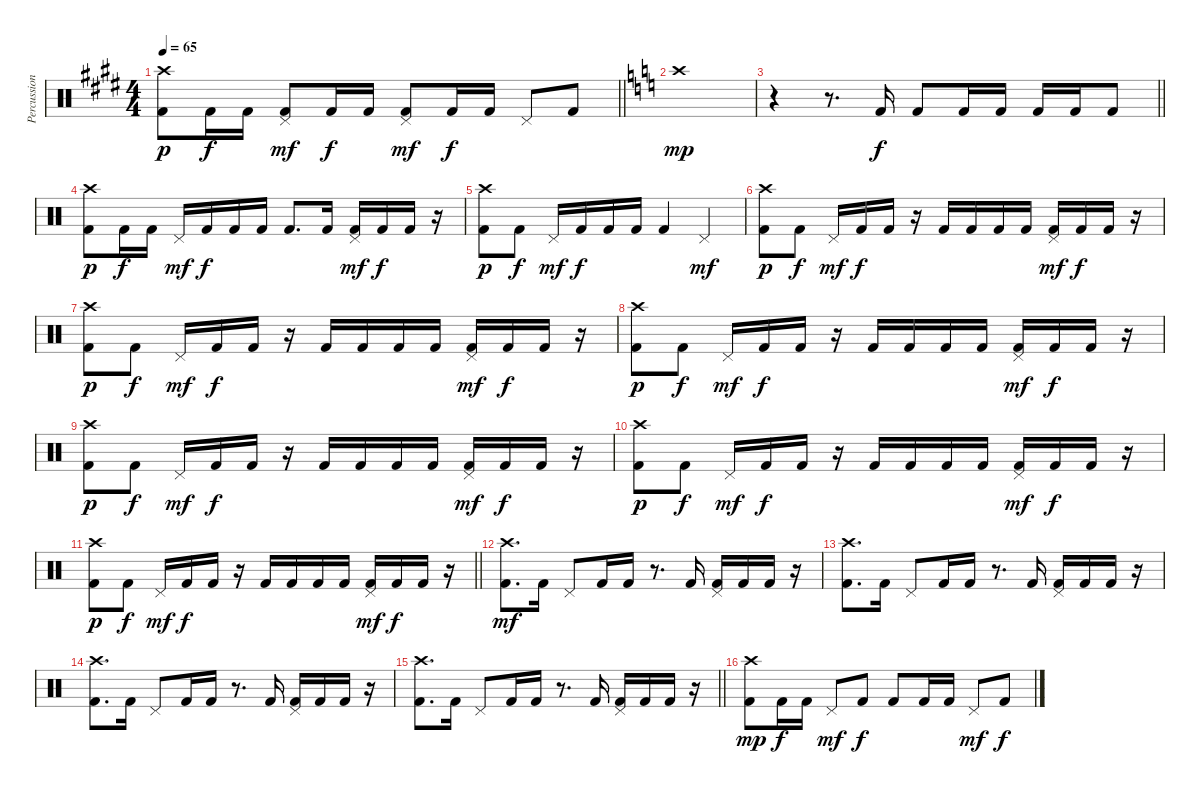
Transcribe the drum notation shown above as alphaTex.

\track ("Percussion" "Percussion") {instrument percussion}
\staff {score}
\articulation defaults
\ts (4 4)
\tempo 65
\clef neutral
\barLineRight lightlight
\ks e
("Crash high (hit)" "Kick (hit) 2").8{dy p} "Kick (hit) 2".16{dy f} "Kick (hit) 2".16 ("Pedal Hi-Hat (hit)" "Kick (hit) 2").8{dy mf} "Kick (hit) 2".16{dy f} "Kick (hit) 2".16 ("Pedal Hi-Hat (hit)" "Kick (hit) 2").8{dy mf} "Kick (hit) 2".16{dy f} "Kick (hit) 2".16 "Pedal Hi-Hat (hit)".8 "Kick (hit) 2".8 |
\ks c "Crash high (hit)".1{dy mp}
|
\barLineRight lightlight
r.4 r.8{d} "Kick (hit) 2".16{dy f} "Kick (hit) 2".8 "Kick (hit) 2".16 "Kick (hit) 2".16 "Kick (hit) 2".16 "Kick (hit) 2".16 "Kick (hit) 2".8 |
("Crash high (hit)" "Kick (hit) 2").8{dy p} "Kick (hit) 2".16{dy f} "Kick (hit) 2".16 "Pedal Hi-Hat (hit)".16{dy mf} "Kick (hit) 2".16{dy f} "Kick (hit) 2".16 "Kick (hit) 2".16 "Kick (hit) 2".8{d} "Kick (hit) 2".16 ("Pedal Hi-Hat (hit)" "Kick (hit) 2").16{dy mf} "Kick (hit) 2".16{dy f} "Kick (hit) 2".16 r.16 |
("Crash high (hit)" "Kick (hit) 2").8{dy p} "Kick (hit) 2".8{dy f} "Pedal Hi-Hat (hit)".16{dy mf} "Kick (hit) 2".16{dy f} "Kick (hit) 2".16 "Kick (hit) 2".16 "Kick (hit) 2".4 "Pedal Hi-Hat (hit)".4{dy mf} |
("Crash high (hit)" "Kick (hit) 2").8{dy p} "Kick (hit) 2".8{dy f} "Pedal Hi-Hat (hit)".16{dy mf} "Kick (hit) 2".16{dy f} "Kick (hit) 2".16 r.16 "Kick (hit) 2".16 "Kick (hit) 2".16 "Kick (hit) 2".16 "Kick (hit) 2".16 ("Pedal Hi-Hat (hit)" "Kick (hit) 2").16{dy mf} "Kick (hit) 2".16{dy f} "Kick (hit) 2".16 r.16 |
("Crash high (hit)" "Kick (hit) 2").8{dy p} "Kick (hit) 2".8{dy f} "Pedal Hi-Hat (hit)".16{dy mf} "Kick (hit) 2".16{dy f} "Kick (hit) 2".16 r.16 "Kick (hit) 2".16 "Kick (hit) 2".16 "Kick (hit) 2".16 "Kick (hit) 2".16 ("Pedal Hi-Hat (hit)" "Kick (hit) 2").16{dy mf} "Kick (hit) 2".16{dy f} "Kick (hit) 2".16 r.16 |
("Crash high (hit)" "Kick (hit) 2").8{dy p} "Kick (hit) 2".8{dy f} "Pedal Hi-Hat (hit)".16{dy mf} "Kick (hit) 2".16{dy f} "Kick (hit) 2".16 r.16 "Kick (hit) 2".16 "Kick (hit) 2".16 "Kick (hit) 2".16 "Kick (hit) 2".16 ("Pedal Hi-Hat (hit)" "Kick (hit) 2").16{dy mf} "Kick (hit) 2".16{dy f} "Kick (hit) 2".16 r.16 |
("Crash high (hit)" "Kick (hit) 2").8{dy p} "Kick (hit) 2".8{dy f} "Pedal Hi-Hat (hit)".16{dy mf} "Kick (hit) 2".16{dy f} "Kick (hit) 2".16 r.16 "Kick (hit) 2".16 "Kick (hit) 2".16 "Kick (hit) 2".16 "Kick (hit) 2".16 ("Pedal Hi-Hat (hit)" "Kick (hit) 2").16{dy mf} "Kick (hit) 2".16{dy f} "Kick (hit) 2".16 r.16 |
("Crash high (hit)" "Kick (hit) 2").8{dy p} "Kick (hit) 2".8{dy f} "Pedal Hi-Hat (hit)".16{dy mf} "Kick (hit) 2".16{dy f} "Kick (hit) 2".16 r.16 "Kick (hit) 2".16 "Kick (hit) 2".16 "Kick (hit) 2".16 "Kick (hit) 2".16 ("Pedal Hi-Hat (hit)" "Kick (hit) 2").16{dy mf} "Kick (hit) 2".16{dy f} "Kick (hit) 2".16 r.16 |
\barLineRight lightlight
("Crash high (hit)" "Kick (hit) 2").8{dy p} "Kick (hit) 2".8{dy f} "Pedal Hi-Hat (hit)".16{dy mf} "Kick (hit) 2".16{dy f} "Kick (hit) 2".16 r.16 "Kick (hit) 2".16 "Kick (hit) 2".16 "Kick (hit) 2".16 "Kick (hit) 2".16 ("Pedal Hi-Hat (hit)" "Kick (hit) 2").16{dy mf} "Kick (hit) 2".16{dy f} "Kick (hit) 2".16 r.16 |
("Crash high (hit)" "Kick (hit) 2").8{d dy mf} "Kick (hit) 2".16 "Pedal Hi-Hat (hit)".8 "Kick (hit) 2".16 "Kick (hit) 2".16 r.8{d} "Kick (hit) 2".16 ("Pedal Hi-Hat (hit)" "Kick (hit) 2").16 "Kick (hit) 2".16 "Kick (hit) 2".16 r.16 |
("Crash high (hit)" "Kick (hit) 2").8{d} "Kick (hit) 2".16 "Pedal Hi-Hat (hit)".8 "Kick (hit) 2".16 "Kick (hit) 2".16 r.8{d} "Kick (hit) 2".16 ("Pedal Hi-Hat (hit)" "Kick (hit) 2").16 "Kick (hit) 2".16 "Kick (hit) 2".16 r.16 |
("Crash high (hit)" "Kick (hit) 2").8{d} "Kick (hit) 2".16 "Pedal Hi-Hat (hit)".8 "Kick (hit) 2".16 "Kick (hit) 2".16 r.8{d} "Kick (hit) 2".16 ("Pedal Hi-Hat (hit)" "Kick (hit) 2").16 "Kick (hit) 2".16 "Kick (hit) 2".16 r.16 |
\barLineRight lightlight
("Crash high (hit)" "Kick (hit) 2").8{d} "Kick (hit) 2".16 "Pedal Hi-Hat (hit)".8 "Kick (hit) 2".16 "Kick (hit) 2".16 r.8{d} "Kick (hit) 2".16 ("Pedal Hi-Hat (hit)" "Kick (hit) 2").16 "Kick (hit) 2".16 "Kick (hit) 2".16 r.16 |
("Crash high (hit)" "Kick (hit) 2").8{dy mp} "Kick (hit) 2".16{dy f} "Kick (hit) 2".16 "Pedal Hi-Hat (hit)".8{dy mf} "Kick (hit) 2".8{dy f} "Kick (hit) 2".8 "Kick (hit) 2".16 "Kick (hit) 2".16 "Pedal Hi-Hat (hit)".8{dy mf} "Kick (hit) 2".8{dy f}
